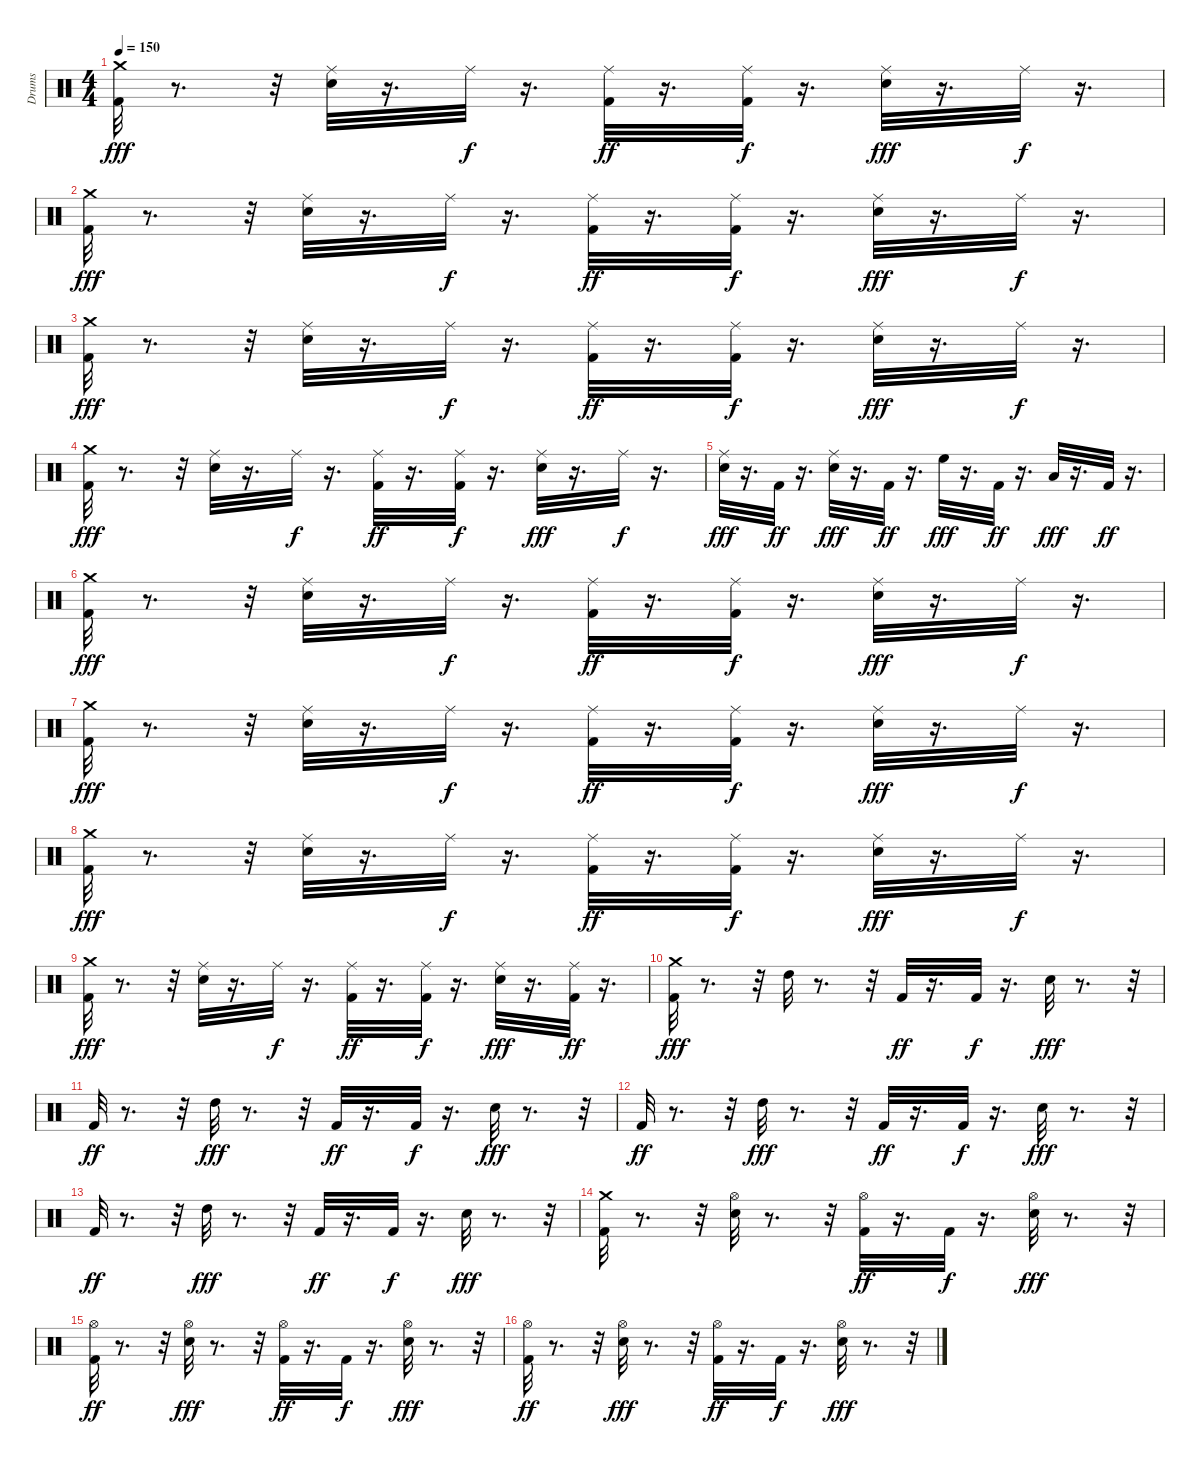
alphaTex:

\track ("Drums" "Drums") {instrument percussion}
\staff {score}
\articulation defaults
\ts (4 4)
\tempo 150
\clef neutral
\ks c
("Kick (hit) 2" "Crash medium (hit)").32{dy fff} r.8{d} r.32 ("Snare (hit) 2" "Ride (middle)").32 r.16{d} "Ride (middle)".32{dy f} r.16{d} ("Kick (hit) 2" "Ride (middle)").32{dy ff} r.16{d} ("Kick (hit) 2" "Ride (middle)").32{dy f} r.16{d} ("Snare (hit) 2" "Ride (middle)").32{dy fff} r.16{d} "Ride (middle)".32{dy f} r.16{d} |
("Kick (hit) 2" "Crash medium (hit)").32{dy fff} r.8{d} r.32 ("Snare (hit) 2" "Ride (middle)").32 r.16{d} "Ride (middle)".32{dy f} r.16{d} ("Kick (hit) 2" "Ride (middle)").32{dy ff} r.16{d} ("Kick (hit) 2" "Ride (middle)").32{dy f} r.16{d} ("Snare (hit) 2" "Ride (middle)").32{dy fff} r.16{d} "Ride (middle)".32{dy f} r.16{d} |
("Kick (hit) 2" "Crash medium (hit)").32{dy fff} r.8{d} r.32 ("Snare (hit) 2" "Ride (middle)").32 r.16{d} "Ride (middle)".32{dy f} r.16{d} ("Kick (hit) 2" "Ride (middle)").32{dy ff} r.16{d} ("Kick (hit) 2" "Ride (middle)").32{dy f} r.16{d} ("Snare (hit) 2" "Ride (middle)").32{dy fff} r.16{d} "Ride (middle)".32{dy f} r.16{d} |
("Kick (hit) 2" "Crash medium (hit)").32{dy fff} r.8{d} r.32 ("Snare (hit) 2" "Ride (middle)").32 r.16{d} "Ride (middle)".32{dy f} r.16{d} ("Kick (hit) 2" "Ride (middle)").32{dy ff} r.16{d} ("Kick (hit) 2" "Ride (middle)").32{dy f} r.16{d} ("Snare (hit) 2" "Ride (middle)").32{dy fff} r.16{d} "Ride (middle)".32{dy f} r.16{d} |
("Snare (hit) 2" "Ride (middle)").32{dy fff} r.16{d} "Kick (hit) 2".32{dy ff} r.16{d} ("Snare (hit) 2" "Ride (middle)").32{dy fff} r.16{d} "Kick (hit) 2".32{dy ff} r.16{d} "High Floor Tom (hit)".32{dy fff} r.16{d} "Kick (hit) 2".32{dy ff} r.16{d} "Low Tom (hit)".32{dy fff} r.16{d} "Kick (hit) 2".32{dy ff} r.16{d} |
("Kick (hit) 2" "Crash medium (hit)").32{dy fff} r.8{d} r.32 ("Snare (hit) 2" "Ride (middle)").32 r.16{d} "Ride (middle)".32{dy f} r.16{d} ("Kick (hit) 2" "Ride (middle)").32{dy ff} r.16{d} ("Kick (hit) 2" "Ride (middle)").32{dy f} r.16{d} ("Snare (hit) 2" "Ride (middle)").32{dy fff} r.16{d} "Ride (middle)".32{dy f} r.16{d} |
("Kick (hit) 2" "Crash medium (hit)").32{dy fff} r.8{d} r.32 ("Snare (hit) 2" "Ride (middle)").32 r.16{d} "Ride (middle)".32{dy f} r.16{d} ("Kick (hit) 2" "Ride (middle)").32{dy ff} r.16{d} ("Kick (hit) 2" "Ride (middle)").32{dy f} r.16{d} ("Snare (hit) 2" "Ride (middle)").32{dy fff} r.16{d} "Ride (middle)".32{dy f} r.16{d} |
("Kick (hit) 2" "Crash medium (hit)").32{dy fff} r.8{d} r.32 ("Snare (hit) 2" "Ride (middle)").32 r.16{d} "Ride (middle)".32{dy f} r.16{d} ("Kick (hit) 2" "Ride (middle)").32{dy ff} r.16{d} ("Kick (hit) 2" "Ride (middle)").32{dy f} r.16{d} ("Snare (hit) 2" "Ride (middle)").32{dy fff} r.16{d} "Ride (middle)".32{dy f} r.16{d} |
("Kick (hit) 2" "Crash medium (hit)").32{dy fff} r.8{d} r.32 ("Snare (hit) 2" "Ride (middle)").32 r.16{d} "Ride (middle)".32{dy f} r.16{d} ("Kick (hit) 2" "Ride (middle)").32{dy ff} r.16{d} ("Kick (hit) 2" "Ride (middle)").32{dy f} r.16{d} ("Snare (hit) 2" "Ride (middle)").32{dy fff} r.16{d} ("Kick (hit) 2" "Ride (middle)").32{dy ff} r.16{d} |
("Kick (hit) 2" "Crash medium (hit)").32{dy fff} r.8{d} r.32 "High Tom (hit)".32 r.8{d} r.32 "Kick (hit) 2".32{dy ff} r.16{d} "Kick (hit) 2".32{dy f} r.16{d} "Snare (hit) 2".32{dy fff} r.8{d} r.32 |
"Kick (hit) 2".32{dy ff} r.8{d} r.32 "High Tom (hit)".32{dy fff} r.8{d} r.32 "Kick (hit) 2".32{dy ff} r.16{d} "Kick (hit) 2".32{dy f} r.16{d} "Snare (hit) 2".32{dy fff} r.8{d} r.32 |
"Kick (hit) 2".32{dy ff} r.8{d} r.32 "High Tom (hit)".32{dy fff} r.8{d} r.32 "Kick (hit) 2".32{dy ff} r.16{d} "Kick (hit) 2".32{dy f} r.16{d} "Snare (hit) 2".32{dy fff} r.8{d} r.32 |
"Kick (hit) 2".32{dy ff} r.8{d} r.32 "High Tom (hit)".32{dy fff} r.8{d} r.32 "Kick (hit) 2".32{dy ff} r.16{d} "Kick (hit) 2".32{dy f} r.16{d} "Snare (hit) 2".32{dy fff} r.8{d} r.32 |
("Kick (hit) 2" "Crash medium (hit)").32 r.8{d} r.32 ("Snare (hit) 2" "Hi-Hat (open)").32 r.8{d} r.32 ("Kick (hit) 2" "Hi-Hat (open)").32{dy ff} r.16{d} "Kick (hit) 2".32{dy f} r.16{d} ("Snare (hit) 2" "Hi-Hat (open)").32{dy fff} r.8{d} r.32 |
("Kick (hit) 2" "Hi-Hat (open)").32{dy ff} r.8{d} r.32 ("Snare (hit) 2" "Hi-Hat (open)").32{dy fff} r.8{d} r.32 ("Kick (hit) 2" "Hi-Hat (open)").32{dy ff} r.16{d} "Kick (hit) 2".32{dy f} r.16{d} ("Snare (hit) 2" "Hi-Hat (open)").32{dy fff} r.8{d} r.32 |
("Kick (hit) 2" "Hi-Hat (open)").32{dy ff} r.8{d} r.32 ("Snare (hit) 2" "Hi-Hat (open)").32{dy fff} r.8{d} r.32 ("Kick (hit) 2" "Hi-Hat (open)").32{dy ff} r.16{d} "Kick (hit) 2".32{dy f} r.16{d} ("Snare (hit) 2" "Hi-Hat (open)").32{dy fff} r.8{d} r.32
